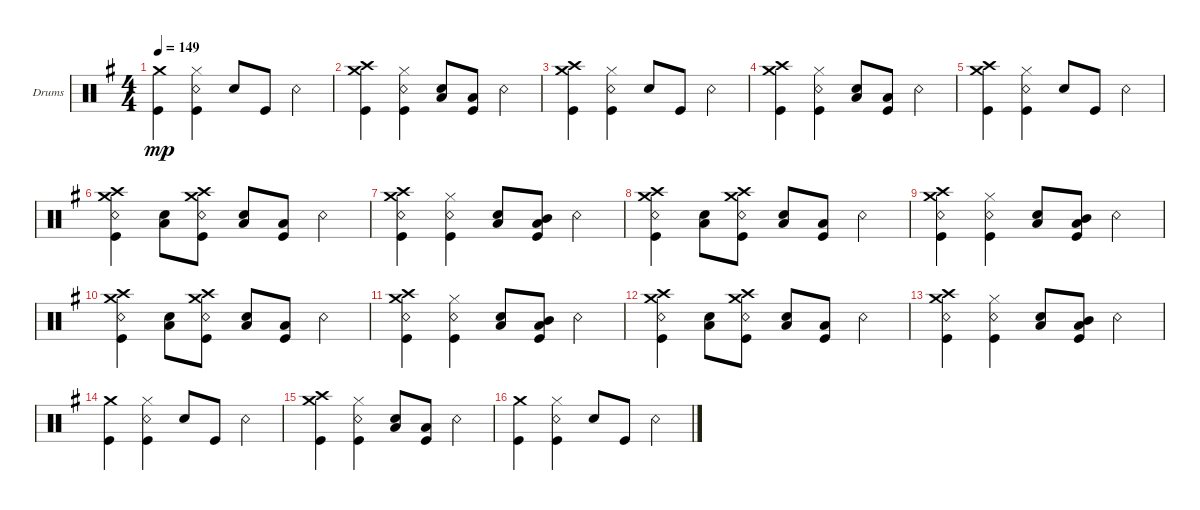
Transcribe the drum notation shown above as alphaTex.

\defaultSystemsLayout 4
\bracketExtendMode groupsimilarinstruments
\firstSystemTrackNameOrientation horizontal
\otherSystemsTrackNameOrientation horizontal
\track ("Drumkit" "Drums") {instrument percussion}
\staff {score}
\articulation defaults
\ts (4 4)
\tempo 149
\clef neutral
\scale
0.5
\ks eminor
("Kick (hit)" "Crash medium (hit)").4{dy mp} ("Snare (rim shot)" "Hi-Hat (closed)" "Kick (hit)").4 "Snare (hit) 2".8 "Kick (hit)".8 "Snare (rim shot)".4 |
\scale
0.5 ("Kick (hit)" "Crash medium (hit)" "Crash high (hit)").4 ("Snare (rim shot)" "Hi-Hat (closed)" "Kick (hit)").4 ("Snare (hit) 2" "Low Tom (hit)").8 ("Kick (hit)" "Low Tom (hit)").8 "Snare (rim shot)".4 |
\scale
0.5 ("Kick (hit)" "Crash medium (hit)" "Crash high (hit)").4 ("Snare (rim shot)" "Hi-Hat (closed)" "Kick (hit)").4 "Snare (hit) 2".8 "Kick (hit)".8 "Snare (rim shot)".4 |
\scale
0.5 ("Kick (hit)" "Crash medium (hit)" "Crash high (hit)").4 ("Snare (rim shot)" "Hi-Hat (closed)" "Kick (hit)").4 ("Snare (hit) 2" "Low Tom (hit)").8 ("Kick (hit)" "Low Tom (hit)").8 "Snare (rim shot)".4 |
\scale
0.5 ("Kick (hit)" "Crash medium (hit)" "Crash high (hit)").4 ("Snare (rim shot)" "Hi-Hat (closed)" "Kick (hit)").4 "Snare (hit) 2".8 "Kick (hit)".8 "Snare (rim shot)".4 |
\scale
0.5 ("Kick (hit)" "Crash high (hit)" "Crash medium (hit)" "Snare (rim shot)").4 ("Low Tom (hit)" "Snare (hit) 2").8 ("Kick (hit)" "Snare (rim shot)" "Crash medium (hit)" "Crash high (hit)").8 ("Snare (hit) 2" "Low Tom (hit)").8 ("Kick (hit)" "Low Tom (hit)").8 "Snare (rim shot)".4 |
("Kick (hit)" "Crash high (hit)" "Crash medium (hit)" "Snare (rim shot)").4 ("Snare (rim shot)" "Hi-Hat (closed)" "Kick (hit)").4 ("Snare (hit) 2" "Low Tom (hit)").8 ("Kick (hit)" "Low Tom (hit)" "Mid Tom (hit)").8 "Snare (rim shot)".4 |
("Kick (hit)" "Crash high (hit)" "Crash medium (hit)" "Snare (rim shot)").4 ("Low Tom (hit)" "Snare (hit) 2").8 ("Kick (hit)" "Snare (rim shot)" "Crash medium (hit)" "Crash high (hit)").8 ("Snare (hit) 2" "Low Tom (hit)").8 ("Kick (hit)" "Low Tom (hit)").8 "Snare (rim shot)".4 |
("Kick (hit)" "Crash high (hit)" "Crash medium (hit)" "Snare (rim shot)").4 ("Snare (rim shot)" "Hi-Hat (closed)" "Kick (hit)").4 ("Snare (hit) 2" "Low Tom (hit)").8 ("Kick (hit)" "Low Tom (hit)" "Mid Tom (hit)").8 "Snare (rim shot)".4 |
("Kick (hit)" "Crash high (hit)" "Crash medium (hit)" "Snare (rim shot)").4 ("Low Tom (hit)" "Snare (hit) 2").8 ("Kick (hit)" "Snare (rim shot)" "Crash medium (hit)" "Crash high (hit)").8 ("Snare (hit) 2" "Low Tom (hit)").8 ("Kick (hit)" "Low Tom (hit)").8 "Snare (rim shot)".4 |
("Kick (hit)" "Crash high (hit)" "Crash medium (hit)" "Snare (rim shot)").4 ("Snare (rim shot)" "Hi-Hat (closed)" "Kick (hit)").4 ("Snare (hit) 2" "Low Tom (hit)").8 ("Kick (hit)" "Low Tom (hit)" "Mid Tom (hit)").8 "Snare (rim shot)".4 |
("Kick (hit)" "Crash high (hit)" "Crash medium (hit)" "Snare (rim shot)").4 ("Low Tom (hit)" "Snare (hit) 2").8 ("Kick (hit)" "Snare (rim shot)" "Crash medium (hit)" "Crash high (hit)").8 ("Snare (hit) 2" "Low Tom (hit)").8 ("Kick (hit)" "Low Tom (hit)").8 "Snare (rim shot)".4 |
("Kick (hit)" "Crash high (hit)" "Crash medium (hit)" "Snare (rim shot)").4 ("Snare (rim shot)" "Hi-Hat (closed)" "Kick (hit)").4 ("Snare (hit) 2" "Low Tom (hit)").8 ("Kick (hit)" "Low Tom (hit)" "Mid Tom (hit)").8 "Snare (rim shot)".4 |
("Kick (hit)" "Crash medium (hit)").4 ("Snare (rim shot)" "Hi-Hat (closed)" "Kick (hit)").4 "Snare (hit) 2".8 "Kick (hit)".8 "Snare (rim shot)".4 |
("Kick (hit)" "Crash medium (hit)" "Crash high (hit)").4 ("Snare (rim shot)" "Hi-Hat (closed)" "Kick (hit)").4 ("Snare (hit) 2" "Low Tom (hit)").8 ("Kick (hit)" "Low Tom (hit)").8 "Snare (rim shot)".4 |
("Kick (hit)" "Crash medium (hit)").4 ("Snare (rim shot)" "Hi-Hat (closed)" "Kick (hit)").4 "Snare (hit) 2".8 "Kick (hit)".8 "Snare (rim shot)".4
